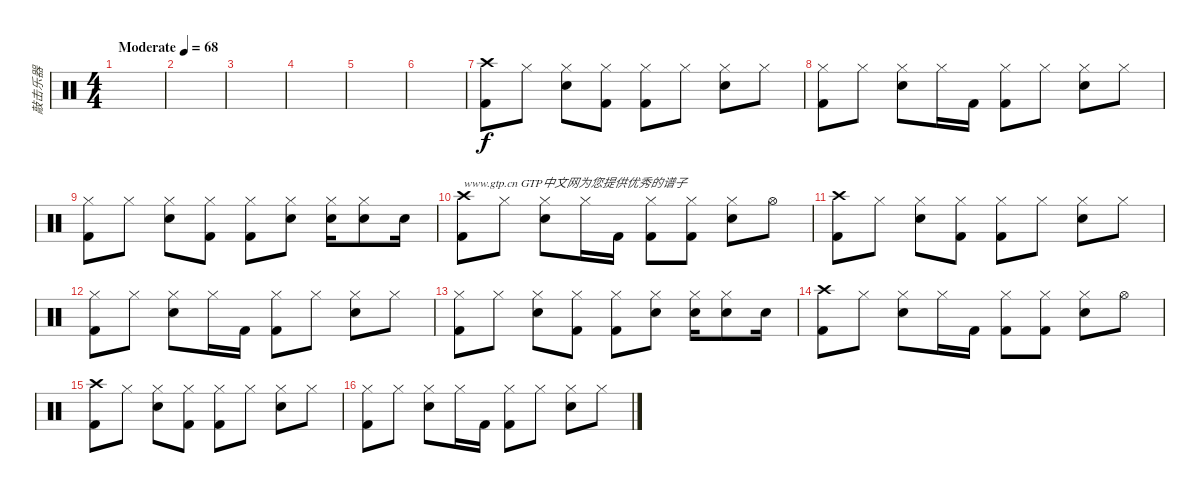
\track ("敲击乐器" "敲击乐器") {instrument percussion}
\staff {score}
\articulation defaults
\ts (4 4)
\tempo (68 "Moderate")
\clef neutral
\ks c
|
|
|
|
|
|
("Crash high (hit)" "Kick (hit) 2").8 "Hi-Hat (closed)".8 ("Hi-Hat (closed)" "Snare (hit) 2").8 ("Hi-Hat (closed)" "Kick (hit) 2").8 ("Hi-Hat (closed)" "Kick (hit) 2").8 "Hi-Hat (closed)".8 ("Hi-Hat (closed)" "Snare (hit) 2").8 "Hi-Hat (closed)".8 |
("Hi-Hat (closed)" "Kick (hit) 2").8 "Hi-Hat (closed)".8 ("Hi-Hat (closed)" "Snare (hit) 2").8 "Hi-Hat (closed)".16 "Kick (hit) 2".16 ("Hi-Hat (closed)" "Kick (hit) 2").8 "Hi-Hat (closed)".8 ("Hi-Hat (closed)" "Snare (hit) 2").8 "Hi-Hat (closed)".8 |
("Hi-Hat (closed)" "Kick (hit) 2").8 "Hi-Hat (closed)".8 ("Hi-Hat (closed)" "Snare (hit) 2").8 ("Hi-Hat (closed)" "Kick (hit) 2").8 ("Hi-Hat (closed)" "Kick (hit) 2").8 ("Hi-Hat (closed)" "Snare (hit) 2").8 ("Hi-Hat (closed)" "Snare (hit) 2").16 ("Hi-Hat (closed)" "Snare (hit) 2").8 "Snare (hit) 2".16 |
("Crash high (hit)" "Kick (hit) 2").8{txt "www.gtp.cn GTP中文网为您提供优秀的谱子"} "Hi-Hat (closed)".8 ("Hi-Hat (closed)" "Snare (hit) 2").8 "Hi-Hat (closed)".16 "Kick (hit) 2".16 ("Hi-Hat (closed)" "Kick (hit) 2").8 ("Hi-Hat (closed)" "Kick (hit) 2").8 ("Hi-Hat (closed)" "Snare (hit) 2").8 "Hi-Hat (open)".8 |
("Crash high (hit)" "Kick (hit) 2").8 "Hi-Hat (closed)".8 ("Hi-Hat (closed)" "Snare (hit) 2").8 ("Hi-Hat (closed)" "Kick (hit) 2").8 ("Hi-Hat (closed)" "Kick (hit) 2").8 "Hi-Hat (closed)".8 ("Hi-Hat (closed)" "Snare (hit) 2").8 "Hi-Hat (closed)".8 |
("Hi-Hat (closed)" "Kick (hit) 2").8 "Hi-Hat (closed)".8 ("Hi-Hat (closed)" "Snare (hit) 2").8 "Hi-Hat (closed)".16 "Kick (hit) 2".16 ("Hi-Hat (closed)" "Kick (hit) 2").8 "Hi-Hat (closed)".8 ("Hi-Hat (closed)" "Snare (hit) 2").8 "Hi-Hat (closed)".8 |
("Hi-Hat (closed)" "Kick (hit) 2").8 "Hi-Hat (closed)".8 ("Hi-Hat (closed)" "Snare (hit) 2").8 ("Hi-Hat (closed)" "Kick (hit) 2").8 ("Hi-Hat (closed)" "Kick (hit) 2").8 ("Hi-Hat (closed)" "Snare (hit) 2").8 ("Hi-Hat (closed)" "Snare (hit) 2").16 ("Hi-Hat (closed)" "Snare (hit) 2").8 "Snare (hit) 2".16 |
("Crash high (hit)" "Kick (hit) 2").8 "Hi-Hat (closed)".8 ("Hi-Hat (closed)" "Snare (hit) 2").8 "Hi-Hat (closed)".16 "Kick (hit) 2".16 ("Hi-Hat (closed)" "Kick (hit) 2").8 ("Hi-Hat (closed)" "Kick (hit) 2").8 ("Hi-Hat (closed)" "Snare (hit) 2").8 "Hi-Hat (open)".8 |
("Crash high (hit)" "Kick (hit) 2").8 "Hi-Hat (closed)".8 ("Hi-Hat (closed)" "Snare (hit) 2").8 ("Hi-Hat (closed)" "Kick (hit) 2").8 ("Hi-Hat (closed)" "Kick (hit) 2").8 "Hi-Hat (closed)".8 ("Hi-Hat (closed)" "Snare (hit) 2").8 "Hi-Hat (closed)".8 |
("Hi-Hat (closed)" "Kick (hit) 2").8 "Hi-Hat (closed)".8 ("Hi-Hat (closed)" "Snare (hit) 2").8 "Hi-Hat (closed)".16 "Kick (hit) 2".16 ("Hi-Hat (closed)" "Kick (hit) 2").8 "Hi-Hat (closed)".8 ("Hi-Hat (closed)" "Snare (hit) 2").8 "Hi-Hat (closed)".8
